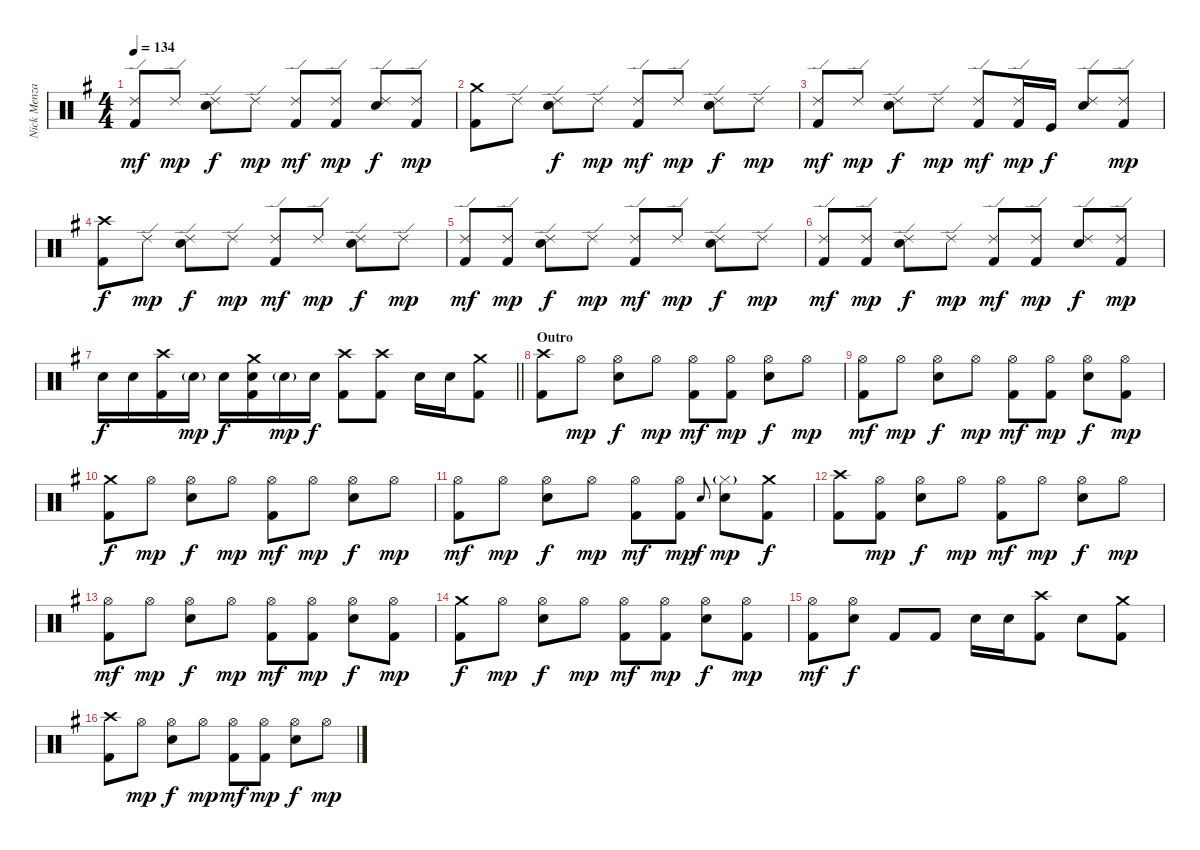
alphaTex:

\track ("Nick Menza" "Nick Menza") {instrument percussion}
\staff {score}
\articulation defaults
\ts (4 4)
\tempo 134
\clef neutral
\ks eminor
("Ride (edge) 2" "Kick (hit) 2").8{dy mf} "Ride (edge) 2".8{dy mp} ("Ride (edge) 2" "Snare (hit) 2").8{dy f} "Ride (edge) 2".8{dy mp} ("Ride (edge) 2" "Kick (hit) 2").8{dy mf} ("Ride (edge) 2" "Kick (hit) 2").8{dy mp} ("Ride (edge) 2" "Snare (hit) 2").8{dy f} ("Ride (edge) 2" "Kick (hit) 2").8{dy mp} |
("Crash medium (hit)" "Kick (hit) 2").8 "Ride (edge) 2".8 ("Ride (edge) 2" "Snare (hit) 2").8{dy f} "Ride (edge) 2".8{dy mp} ("Ride (edge) 2" "Kick (hit) 2").8{dy mf} "Ride (edge) 2".8{dy mp} ("Ride (edge) 2" "Snare (hit) 2").8{dy f} "Ride (edge) 2".8{dy mp} |
("Ride (edge) 2" "Kick (hit) 2").8{dy mf} "Ride (edge) 2".8{dy mp} ("Ride (edge) 2" "Snare (hit) 2").8{dy f} "Ride (edge) 2".8{dy mp} ("Ride (edge) 2" "Kick (hit) 2").8{dy mf} ("Ride (edge) 2" "Kick (hit) 2").16{dy mp} "Kick (hit)".16{dy f} ("Ride (edge) 2" "Snare (hit) 2").8 ("Ride (edge) 2" "Kick (hit) 2").8{dy mp} |
("Crash high (hit)" "Kick (hit) 2").8{dy f} "Ride (edge) 2".8{dy mp} ("Ride (edge) 2" "Snare (hit) 2").8{dy f} "Ride (edge) 2".8{dy mp} ("Ride (edge) 2" "Kick (hit) 2").8{dy mf} "Ride (edge) 2".8{dy mp} ("Ride (edge) 2" "Snare (hit) 2").8{dy f} "Ride (edge) 2".8{dy mp} |
("Ride (edge) 2" "Kick (hit) 2").8{dy mf} ("Ride (edge) 2" "Kick (hit) 2").8{dy mp} ("Ride (edge) 2" "Snare (hit) 2").8{dy f} "Ride (edge) 2".8{dy mp} ("Ride (edge) 2" "Kick (hit) 2").8{dy mf} "Ride (edge) 2".8{dy mp} ("Ride (edge) 2" "Snare (hit) 2").8{dy f} "Ride (edge) 2".8{dy mp} |
("Ride (edge) 2" "Kick (hit) 2").8{dy mf} ("Ride (edge) 2" "Kick (hit) 2").8{dy mp} ("Ride (edge) 2" "Snare (hit) 2").8{dy f} "Ride (edge) 2".8{dy mp} ("Ride (edge) 2" "Kick (hit) 2").8{dy mf} ("Ride (edge) 2" "Kick (hit) 2").8{dy mp} ("Ride (edge) 2" "Snare (hit) 2").8{dy f} ("Ride (edge) 2" "Kick (hit) 2").8{dy mp} |
\barLineRight lightlight "Snare (hit) 2".16{dy f} "Snare (hit) 2".16
("Crash high (hit)" "Kick (hit) 2").16 "Snare (hit) 2"{g}.16{dy mp} "Snare (hit) 2".16{dy f} ("Crash medium (hit)" "Snare (hit) 2" "Kick (hit) 2").16 "Snare (hit) 2"{g}.16{dy mp} "Snare (hit) 2".16{dy f} ("Crash high (hit)" "Kick (hit) 2").8 ("Crash high (hit)" "Kick (hit) 2").8 "Snare (hit) 2".16 "Snare (hit) 2".16 ("Crash medium (hit)" "Kick (hit) 2").8 |
\section ("" "Outro")
("Crash high (hit)" "Kick (hit) 2").8 "Hi-Hat (open)".8{dy mp} ("Hi-Hat (open)" "Snare (hit) 2").8{dy f} "Hi-Hat (open)".8{dy mp} ("Hi-Hat (open)" "Kick (hit) 2").8{dy mf} ("Hi-Hat (open)" "Kick (hit) 2").8{dy mp} ("Hi-Hat (open)" "Snare (hit) 2").8{dy f} "Hi-Hat (open)".8{dy mp} |
("Hi-Hat (open)" "Kick (hit) 2").8{dy mf} "Hi-Hat (open)".8{dy mp} ("Hi-Hat (open)" "Snare (hit) 2").8{dy f} "Hi-Hat (open)".8{dy mp} ("Hi-Hat (open)" "Kick (hit) 2").8{dy mf} ("Hi-Hat (open)" "Kick (hit) 2").8{dy mp} ("Hi-Hat (open)" "Snare (hit) 2").8{dy f} ("Hi-Hat (open)" "Kick (hit) 2").8{dy mp} |
("Crash medium (hit)" "Kick (hit) 2").8{dy f} "Hi-Hat (open)".8{dy mp} ("Hi-Hat (open)" "Snare (hit) 2").8{dy f} "Hi-Hat (open)".8{dy mp} ("Hi-Hat (open)" "Kick (hit) 2").8{dy mf} "Hi-Hat (open)".8{dy mp} ("Hi-Hat (open)" "Snare (hit) 2").8{dy f} "Hi-Hat (open)".8{dy mp} |
("Hi-Hat (open)" "Kick (hit) 2").8{dy mf} "Hi-Hat (open)".8{dy mp} ("Hi-Hat (open)" "Snare (hit) 2").8{dy f} "Hi-Hat (open)".8{dy mp} ("Hi-Hat (open)" "Kick (hit) 2").8{dy mf} ("Hi-Hat (open)" "Kick (hit) 2").8{dy mp} "Snare (hit) 2".8{gr onbeat dy f} ("Hi-Hat (closed)"{g} "Snare (hit) 2").8{dy mp} ("Crash medium (hit)" "Kick (hit) 2").8{dy f} |
("Crash high (hit)" "Kick (hit) 2").8 ("Hi-Hat (open)" "Kick (hit) 2").8{dy mp} ("Hi-Hat (open)" "Snare (hit) 2").8{dy f} "Hi-Hat (open)".8{dy mp} ("Hi-Hat (open)" "Kick (hit) 2").8{dy mf} "Hi-Hat (open)".8{dy mp} ("Hi-Hat (open)" "Snare (hit) 2").8{dy f} "Hi-Hat (open)".8{dy mp} |
("Hi-Hat (open)" "Kick (hit) 2").8{dy mf} "Hi-Hat (open)".8{dy mp} ("Hi-Hat (open)" "Snare (hit) 2").8{dy f} "Hi-Hat (open)".8{dy mp} ("Hi-Hat (open)" "Kick (hit) 2").8{dy mf} ("Hi-Hat (open)" "Kick (hit) 2").8{dy mp} ("Hi-Hat (open)" "Snare (hit) 2").8{dy f} ("Hi-Hat (open)" "Kick (hit) 2").8{dy mp} |
("Crash medium (hit)" "Kick (hit) 2").8{dy f} "Hi-Hat (open)".8{dy mp} ("Hi-Hat (open)" "Snare (hit) 2").8{dy f} "Hi-Hat (open)".8{dy mp} ("Hi-Hat (open)" "Kick (hit) 2").8{dy mf} ("Hi-Hat (open)" "Kick (hit) 2").8{dy mp} ("Hi-Hat (open)" "Snare (hit) 2").8{dy f} ("Hi-Hat (open)" "Kick (hit) 2").8{dy mp} |
("Hi-Hat (open)" "Kick (hit) 2").8{dy mf} ("Hi-Hat (open)" "Snare (hit) 2").8{dy f} "Kick (hit) 2".8 "Kick (hit) 2".8 "Snare (hit) 2".16 "Snare (hit) 2".16 ("Crash high (hit)" "Kick (hit) 2").8 "Snare (hit) 2".8 ("Crash medium (hit)" "Kick (hit) 2").8 |
("Crash high (hit)" "Kick (hit) 2").8 "Hi-Hat (open)".8{dy mp} ("Hi-Hat (open)" "Snare (hit) 2").8{dy f} "Hi-Hat (open)".8{dy mp} ("Hi-Hat (open)" "Kick (hit) 2").8{dy mf} ("Hi-Hat (open)" "Kick (hit) 2").8{dy mp} ("Hi-Hat (open)" "Snare (hit) 2").8{dy f} "Hi-Hat (open)".8{dy mp}
